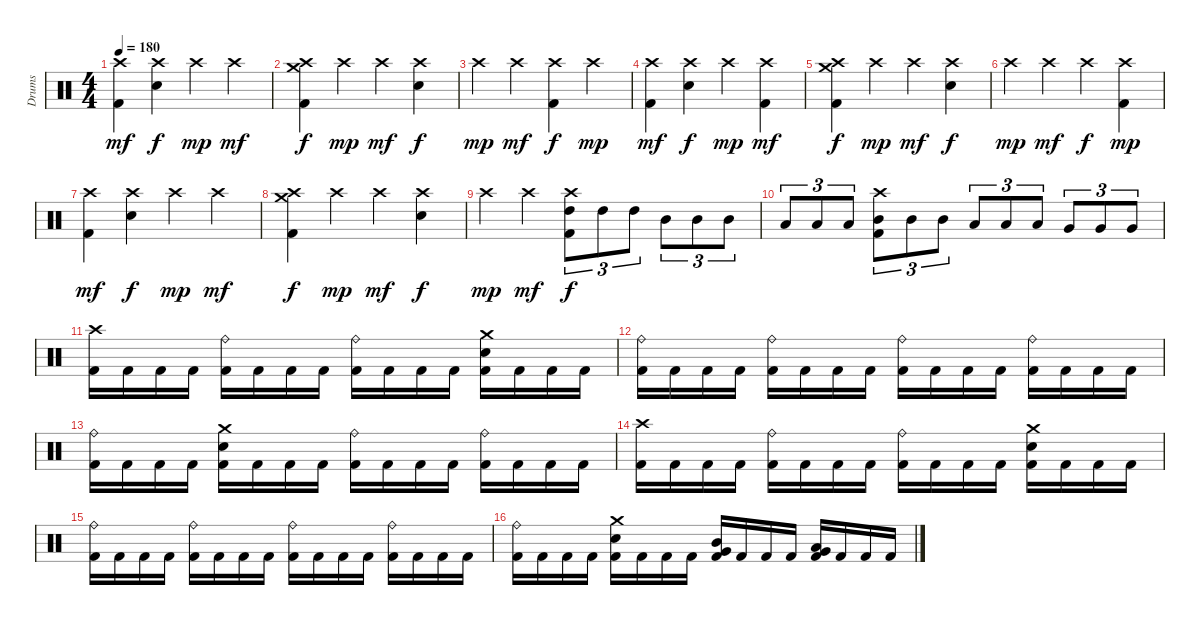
\track ("Drums" "Drums") {instrument percussion}
\staff {score}
\articulation defaults
\ts (4 4)
\tempo 180
\clef neutral
\ks c
("Crash high (hit)" "Kick (hit) 2").4{dy mf} ("Crash high (hit)" "Electric Snare (hit)").4{dy f} "Crash high (hit)".4{dy mp} "Crash high (hit)".4{dy mf} |
("Crash medium (hit)" "Crash high (hit)" "Kick (hit) 2").4{dy f} "Crash high (hit)".4{dy mp} "Crash high (hit)".4{dy mf} ("Crash high (hit)" "Electric Snare (hit)").4{dy f} |
"Crash high (hit)".4{dy mp} "Crash high (hit)".4{dy mf} ("Crash high (hit)" "Kick (hit) 2").4{dy f} "Crash high (hit)".4{dy mp} |
("Crash high (hit)" "Kick (hit) 2").4{dy mf} ("Crash high (hit)" "Electric Snare (hit)").4{dy f} "Crash high (hit)".4{dy mp} ("Crash high (hit)" "Kick (hit) 2").4{dy mf} |
("Crash medium (hit)" "Crash high (hit)" "Kick (hit) 2").4{dy f} "Crash high (hit)".4{dy mp} "Crash high (hit)".4{dy mf} ("Crash high (hit)" "Electric Snare (hit)").4{dy f} |
"Crash high (hit)".4{dy mp} "Crash high (hit)".4{dy mf} "Crash high (hit)".4{dy f} ("Crash high (hit)" "Kick (hit) 2").4{dy mp} |
("Crash high (hit)" "Kick (hit) 2").4{dy mf} ("Crash high (hit)" "Electric Snare (hit)").4{dy f} "Crash high (hit)".4{dy mp} "Crash high (hit)".4{dy mf} |
("Crash medium (hit)" "Crash high (hit)" "Kick (hit) 2").4{dy f} "Crash high (hit)".4{dy mp} "Crash high (hit)".4{dy mf} ("Crash high (hit)" "Electric Snare (hit)").4{dy f} |
"Crash high (hit)".4{dy mp} "Crash high (hit)".4{dy mf} ("Crash high (hit)" "High Tom (hit)" "Kick (hit) 2").8{tu (3 2) dy f} "High Tom (hit)".8{tu (3 2)} "High Tom (hit)".8{tu (3 2)} "Mid Tom (hit)".8{tu (3 2)} "Mid Tom (hit)".8{tu (3 2)} "Mid Tom (hit)".8{tu (3 2)} |
"Low Tom (hit)".8{tu (3 2)} "Low Tom (hit)".8{tu (3 2)} "Low Tom (hit)".8{tu (3 2)} ("Crash high (hit)" "Mid Tom (hit)" "Kick (hit) 2").8{tu (3 2)} "Mid Tom (hit)".8{tu (3 2)} "Mid Tom (hit)".8{tu (3 2)} "Low Tom (hit)".8{tu (3 2)} "Low Tom (hit)".8{tu (3 2)} "Low Tom (hit)".8{tu (3 2)} "Very Low Tom (hit)".8{tu (3 2)} "Very Low Tom (hit)".8{tu (3 2)} "Very Low Tom (hit)".8{tu (3 2)} |
("Crash high (hit)" "Kick (hit) 2").16 "Kick (hit) 2".16 "Kick (hit) 2".16 "Kick (hit) 2".16 ("Ride (bell)" "Kick (hit) 2").16 "Kick (hit) 2".16 "Kick (hit) 2".16 "Kick (hit) 2".16 ("Ride (bell)" "Kick (hit) 2").16 "Kick (hit) 2".16 "Kick (hit) 2".16 "Kick (hit) 2".16 ("Crash medium (hit)" "Electric Snare (hit)" "Kick (hit) 2").16 "Kick (hit) 2".16 "Kick (hit) 2".16 "Kick (hit) 2".16 |
("Ride (bell)" "Kick (hit) 2").16 "Kick (hit) 2".16 "Kick (hit) 2".16 "Kick (hit) 2".16 ("Ride (bell)" "Kick (hit) 2").16 "Kick (hit) 2".16 "Kick (hit) 2".16 "Kick (hit) 2".16 ("Ride (bell)" "Kick (hit) 2").16 "Kick (hit) 2".16 "Kick (hit) 2".16 "Kick (hit) 2".16 ("Ride (bell)" "Kick (hit) 2").16 "Kick (hit) 2".16 "Kick (hit) 2".16 "Kick (hit) 2".16 |
("Ride (bell)" "Kick (hit) 2").16 "Kick (hit) 2".16 "Kick (hit) 2".16 "Kick (hit) 2".16 ("Crash medium (hit)" "Electric Snare (hit)" "Kick (hit) 2").16 "Kick (hit) 2".16 "Kick (hit) 2".16 "Kick (hit) 2".16 ("Ride (bell)" "Kick (hit) 2").16 "Kick (hit) 2".16 "Kick (hit) 2".16 "Kick (hit) 2".16 ("Ride (bell)" "Kick (hit) 2").16 "Kick (hit) 2".16 "Kick (hit) 2".16 "Kick (hit) 2".16 |
("Crash high (hit)" "Kick (hit) 2").16 "Kick (hit) 2".16 "Kick (hit) 2".16 "Kick (hit) 2".16 ("Ride (bell)" "Kick (hit) 2").16 "Kick (hit) 2".16 "Kick (hit) 2".16 "Kick (hit) 2".16 ("Ride (bell)" "Kick (hit) 2").16 "Kick (hit) 2".16 "Kick (hit) 2".16 "Kick (hit) 2".16 ("Crash medium (hit)" "Electric Snare (hit)" "Kick (hit) 2").16 "Kick (hit) 2".16 "Kick (hit) 2".16 "Kick (hit) 2".16 |
("Ride (bell)" "Kick (hit) 2").16 "Kick (hit) 2".16 "Kick (hit) 2".16 "Kick (hit) 2".16 ("Ride (bell)" "Kick (hit) 2").16 "Kick (hit) 2".16 "Kick (hit) 2".16 "Kick (hit) 2".16 ("Ride (bell)" "Kick (hit) 2").16 "Kick (hit) 2".16 "Kick (hit) 2".16 "Kick (hit) 2".16 ("Ride (bell)" "Kick (hit) 2").16 "Kick (hit) 2".16 "Kick (hit) 2".16 "Kick (hit) 2".16 |
("Ride (bell)" "Kick (hit) 2").16 "Kick (hit) 2".16 "Kick (hit) 2".16 "Kick (hit) 2".16 ("Crash medium (hit)" "Electric Snare (hit)" "Kick (hit) 2").16 "Kick (hit) 2".16 "Kick (hit) 2".16 "Kick (hit) 2".16 ("Mid Tom (hit)" "Very Low Tom (hit)" "Kick (hit) 2").16 "Kick (hit) 2".16 "Kick (hit) 2".16 "Kick (hit) 2".16 ("Low Tom (hit)" "Very Low Tom (hit)" "Kick (hit) 2").16 "Kick (hit) 2".16 "Kick (hit) 2".16 "Kick (hit) 2".16
